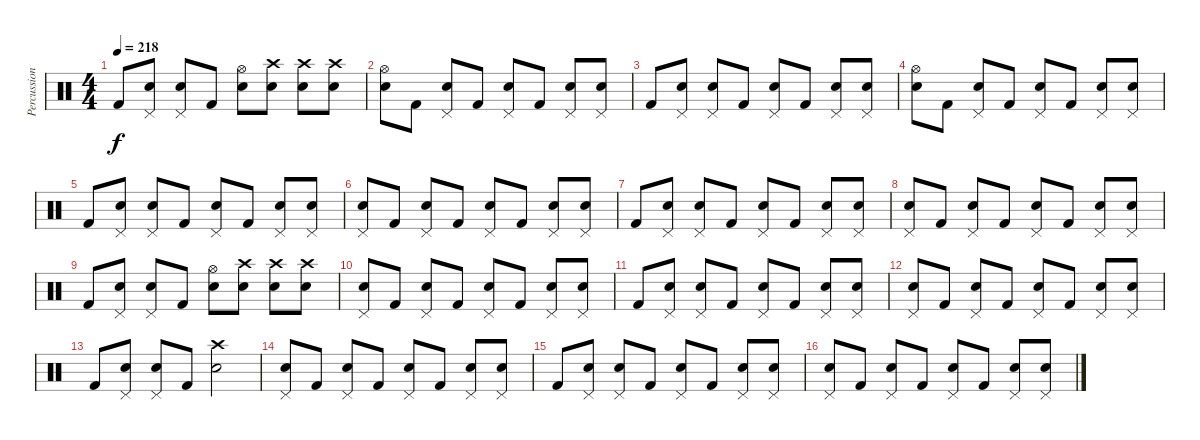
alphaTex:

\track ("Percussions" "Percussion") {instrument percussion}
\staff {score}
\articulation defaults
\ts (4 4)
\tempo 218
\clef neutral
\ks c "Kick (hit) 2".8{dy f}
("Pedal Hi-Hat (hit)" "Electric Snare (hit)").8 ("Pedal Hi-Hat (hit)" "Electric Snare (hit)").8 "Kick (hit) 2".8 ("Hi-Hat (open)" "Electric Snare (hit)").8 ("Crash high (hit)" "Electric Snare (hit)").8 ("Crash high (hit)" "Electric Snare (hit)").8 ("Crash high (hit)" "Electric Snare (hit)").8 |
("Hi-Hat (open)" "Electric Snare (hit)").8 "Kick (hit) 2".8 ("Pedal Hi-Hat (hit)" "Electric Snare (hit)").8 "Kick (hit) 2".8 ("Pedal Hi-Hat (hit)" "Electric Snare (hit)").8 "Kick (hit) 2".8 ("Pedal Hi-Hat (hit)" "Electric Snare (hit)").8 ("Pedal Hi-Hat (hit)" "Electric Snare (hit)").8 |
"Kick (hit) 2".8 ("Pedal Hi-Hat (hit)" "Electric Snare (hit)").8 ("Pedal Hi-Hat (hit)" "Electric Snare (hit)").8 "Kick (hit) 2".8 ("Pedal Hi-Hat (hit)" "Electric Snare (hit)").8 "Kick (hit) 2".8 ("Pedal Hi-Hat (hit)" "Electric Snare (hit)").8 ("Pedal Hi-Hat (hit)" "Electric Snare (hit)").8 |
("Hi-Hat (open)" "Electric Snare (hit)").8 "Kick (hit) 2".8 ("Pedal Hi-Hat (hit)" "Electric Snare (hit)").8 "Kick (hit) 2".8 ("Pedal Hi-Hat (hit)" "Electric Snare (hit)").8 "Kick (hit) 2".8 ("Pedal Hi-Hat (hit)" "Electric Snare (hit)").8 ("Pedal Hi-Hat (hit)" "Electric Snare (hit)").8 |
"Kick (hit) 2".8 ("Pedal Hi-Hat (hit)" "Electric Snare (hit)").8 ("Pedal Hi-Hat (hit)" "Electric Snare (hit)").8 "Kick (hit) 2".8 ("Pedal Hi-Hat (hit)" "Electric Snare (hit)").8 "Kick (hit) 2".8 ("Pedal Hi-Hat (hit)" "Electric Snare (hit)").8 ("Pedal Hi-Hat (hit)" "Electric Snare (hit)").8 |
("Pedal Hi-Hat (hit)" "Electric Snare (hit)").8 "Kick (hit) 2".8 ("Pedal Hi-Hat (hit)" "Electric Snare (hit)").8 "Kick (hit) 2".8 ("Pedal Hi-Hat (hit)" "Electric Snare (hit)").8 "Kick (hit) 2".8 ("Pedal Hi-Hat (hit)" "Electric Snare (hit)").8 ("Pedal Hi-Hat (hit)" "Electric Snare (hit)").8 |
"Kick (hit) 2".8 ("Pedal Hi-Hat (hit)" "Electric Snare (hit)").8 ("Pedal Hi-Hat (hit)" "Electric Snare (hit)").8 "Kick (hit) 2".8 ("Pedal Hi-Hat (hit)" "Electric Snare (hit)").8 "Kick (hit) 2".8 ("Pedal Hi-Hat (hit)" "Electric Snare (hit)").8 ("Pedal Hi-Hat (hit)" "Electric Snare (hit)").8 |
("Pedal Hi-Hat (hit)" "Electric Snare (hit)").8 "Kick (hit) 2".8 ("Pedal Hi-Hat (hit)" "Electric Snare (hit)").8 "Kick (hit) 2".8 ("Pedal Hi-Hat (hit)" "Electric Snare (hit)").8 "Kick (hit) 2".8 ("Pedal Hi-Hat (hit)" "Electric Snare (hit)").8 ("Pedal Hi-Hat (hit)" "Electric Snare (hit)").8 |
"Kick (hit) 2".8 ("Pedal Hi-Hat (hit)" "Electric Snare (hit)").8 ("Pedal Hi-Hat (hit)" "Electric Snare (hit)").8 "Kick (hit) 2".8 ("Hi-Hat (open)" "Electric Snare (hit)").8 ("Crash high (hit)" "Electric Snare (hit)").8 ("Crash high (hit)" "Electric Snare (hit)").8 ("Crash high (hit)" "Electric Snare (hit)").8 |
("Pedal Hi-Hat (hit)" "Electric Snare (hit)").8 "Kick (hit) 2".8 ("Pedal Hi-Hat (hit)" "Electric Snare (hit)").8 "Kick (hit) 2".8 ("Pedal Hi-Hat (hit)" "Electric Snare (hit)").8 "Kick (hit) 2".8 ("Pedal Hi-Hat (hit)" "Electric Snare (hit)").8 ("Pedal Hi-Hat (hit)" "Electric Snare (hit)").8 |
"Kick (hit) 2".8 ("Pedal Hi-Hat (hit)" "Electric Snare (hit)").8 ("Pedal Hi-Hat (hit)" "Electric Snare (hit)").8 "Kick (hit) 2".8 ("Pedal Hi-Hat (hit)" "Electric Snare (hit)").8 "Kick (hit) 2".8 ("Pedal Hi-Hat (hit)" "Electric Snare (hit)").8 ("Pedal Hi-Hat (hit)" "Electric Snare (hit)").8 |
("Pedal Hi-Hat (hit)" "Electric Snare (hit)").8 "Kick (hit) 2".8 ("Pedal Hi-Hat (hit)" "Electric Snare (hit)").8 "Kick (hit) 2".8 ("Pedal Hi-Hat (hit)" "Electric Snare (hit)").8 "Kick (hit) 2".8 ("Pedal Hi-Hat (hit)" "Electric Snare (hit)").8 ("Pedal Hi-Hat (hit)" "Electric Snare (hit)").8 |
"Kick (hit) 2".8 ("Pedal Hi-Hat (hit)" "Electric Snare (hit)").8 ("Pedal Hi-Hat (hit)" "Electric Snare (hit)").8 "Kick (hit) 2".8 ("Crash high (hit)" "Electric Snare (hit)").2 |
("Pedal Hi-Hat (hit)" "Electric Snare (hit)").8 "Kick (hit) 2".8 ("Pedal Hi-Hat (hit)" "Electric Snare (hit)").8 "Kick (hit) 2".8 ("Pedal Hi-Hat (hit)" "Electric Snare (hit)").8 "Kick (hit) 2".8 ("Pedal Hi-Hat (hit)" "Electric Snare (hit)").8 ("Pedal Hi-Hat (hit)" "Electric Snare (hit)").8 |
"Kick (hit) 2".8 ("Pedal Hi-Hat (hit)" "Electric Snare (hit)").8 ("Pedal Hi-Hat (hit)" "Electric Snare (hit)").8 "Kick (hit) 2".8 ("Pedal Hi-Hat (hit)" "Electric Snare (hit)").8 "Kick (hit) 2".8 ("Pedal Hi-Hat (hit)" "Electric Snare (hit)").8 ("Pedal Hi-Hat (hit)" "Electric Snare (hit)").8 |
("Pedal Hi-Hat (hit)" "Electric Snare (hit)").8 "Kick (hit) 2".8 ("Pedal Hi-Hat (hit)" "Electric Snare (hit)").8 "Kick (hit) 2".8 ("Pedal Hi-Hat (hit)" "Electric Snare (hit)").8 "Kick (hit) 2".8 ("Pedal Hi-Hat (hit)" "Electric Snare (hit)").8 ("Pedal Hi-Hat (hit)" "Electric Snare (hit)").8
